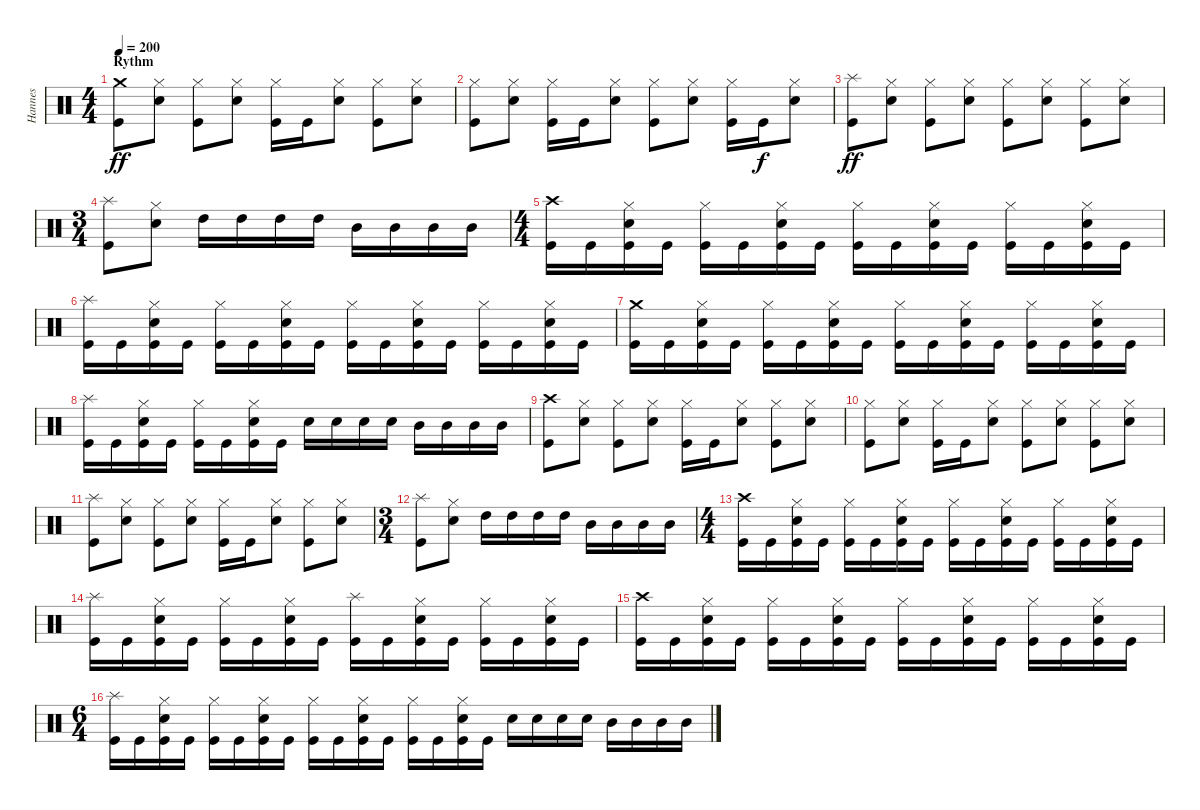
\track ("Hannes" "Hannes") {instrument percussion}
\staff {score}
\articulation defaults
\ts (4 4)
\section ("" "Rythm")
\tempo 200
\clef neutral
\ks c
("Crash medium (hit)" "Kick (hit)").8{dy ff} ("Hi-Hat (closed)" "Electric Snare (hit)").8 ("Hi-Hat (closed)" "Kick (hit)").8 ("Hi-Hat (closed)" "Electric Snare (hit)").8 ("Hi-Hat (closed)" "Kick (hit)").16 "Kick (hit)".16 ("Hi-Hat (closed)" "Electric Snare (hit)").8 ("Hi-Hat (closed)" "Kick (hit)").8 ("Hi-Hat (closed)" "Electric Snare (hit)").8 |
("Hi-Hat (closed)" "Kick (hit)").8 ("Hi-Hat (closed)" "Electric Snare (hit)").8 ("Hi-Hat (closed)" "Kick (hit)").16 "Kick (hit)".16 ("Hi-Hat (closed)" "Electric Snare (hit)").8 ("Hi-Hat (closed)" "Kick (hit)").8 ("Hi-Hat (closed)" "Electric Snare (hit)").8 ("Hi-Hat (closed)" "Kick (hit)").16 "Kick (hit)".16{dy f} ("Hi-Hat (closed)" "Electric Snare (hit)").8 |
("Splash (hit)" "Kick (hit)").8{dy ff} ("Hi-Hat (closed)" "Electric Snare (hit)").8 ("Hi-Hat (closed)" "Kick (hit)").8 ("Hi-Hat (closed)" "Electric Snare (hit)").8 ("Hi-Hat (closed)" "Kick (hit)").8 ("Hi-Hat (closed)" "Electric Snare (hit)").8 ("Hi-Hat (closed)" "Kick (hit)").8 ("Hi-Hat (closed)" "Electric Snare (hit)").8 |
\ts (3 4)
("Splash (hit)" "Kick (hit)").8 ("Hi-Hat (closed)" "Electric Snare (hit)").8 "High Tom (hit)".16 "High Tom (hit)".16 "High Tom (hit)".16 "High Tom (hit)".16 "Mid Tom (hit)".16 "Mid Tom (hit)".16 "Mid Tom (hit)".16 "Mid Tom (hit)".16 |
\ts (4 4)
("Crash high (hit)" "Kick (hit)").16 "Kick (hit)".16 ("Hi-Hat (closed)" "Electric Snare (hit)" "Kick (hit)").16 "Kick (hit)".16 ("Hi-Hat (closed)" "Kick (hit)").16 "Kick (hit)".16 ("Hi-Hat (closed)" "Electric Snare (hit)" "Kick (hit)").16 "Kick (hit)".16 ("Hi-Hat (closed)" "Kick (hit)").16 "Kick (hit)".16 ("Hi-Hat (closed)" "Electric Snare (hit)" "Kick (hit)").16 "Kick (hit)".16 ("Hi-Hat (closed)" "Kick (hit)").16 "Kick (hit)".16 ("Hi-Hat (closed)" "Electric Snare (hit)" "Kick (hit)").16 "Kick (hit)".16 |
("Splash (hit)" "Kick (hit)").16 "Kick (hit)".16 ("Hi-Hat (closed)" "Electric Snare (hit)" "Kick (hit)").16 "Kick (hit)".16 ("Hi-Hat (closed)" "Kick (hit)").16 "Kick (hit)".16 ("Hi-Hat (closed)" "Electric Snare (hit)" "Kick (hit)").16 "Kick (hit)".16 ("Hi-Hat (closed)" "Kick (hit)").16 "Kick (hit)".16 ("Hi-Hat (closed)" "Electric Snare (hit)" "Kick (hit)").16 "Kick (hit)".16 ("Hi-Hat (closed)" "Kick (hit)").16 "Kick (hit)".16 ("Hi-Hat (closed)" "Electric Snare (hit)" "Kick (hit)").16 "Kick (hit)".16 |
("Crash medium (hit)" "Kick (hit)").16 "Kick (hit)".16 ("Hi-Hat (closed)" "Electric Snare (hit)" "Kick (hit)").16 "Kick (hit)".16 ("Hi-Hat (closed)" "Kick (hit)").16 "Kick (hit)".16 ("Hi-Hat (closed)" "Electric Snare (hit)" "Kick (hit)").16 "Kick (hit)".16 ("Hi-Hat (closed)" "Kick (hit)").16 "Kick (hit)".16 ("Hi-Hat (closed)" "Electric Snare (hit)" "Kick (hit)").16 "Kick (hit)".16 ("Hi-Hat (closed)" "Kick (hit)").16 "Kick (hit)".16 ("Hi-Hat (closed)" "Electric Snare (hit)" "Kick (hit)").16 "Kick (hit)".16 |
("Splash (hit)" "Kick (hit)").16 "Kick (hit)".16 ("Hi-Hat (closed)" "Electric Snare (hit)" "Kick (hit)").16 "Kick (hit)".16 ("Hi-Hat (closed)" "Kick (hit)").16 "Kick (hit)".16 ("Hi-Hat (closed)" "Electric Snare (hit)" "Kick (hit)").16 "Kick (hit)".16 "Electric Snare (hit)".16 "Electric Snare (hit)".16 "Electric Snare (hit)".16 "Electric Snare (hit)".16 "Mid Tom (hit)".16 "Mid Tom (hit)".16 "Mid Tom (hit)".16 "Mid Tom (hit)".16 |
("Crash high (hit)" "Kick (hit)").8 ("Hi-Hat (closed)" "Electric Snare (hit)").8 ("Hi-Hat (closed)" "Kick (hit)").8 ("Hi-Hat (closed)" "Electric Snare (hit)").8 ("Hi-Hat (closed)" "Kick (hit)").16 "Kick (hit)".16 ("Hi-Hat (closed)" "Electric Snare (hit)").8 ("Hi-Hat (closed)" "Kick (hit)").8 ("Hi-Hat (closed)" "Electric Snare (hit)").8 |
("Hi-Hat (closed)" "Kick (hit)").8 ("Hi-Hat (closed)" "Electric Snare (hit)").8 ("Hi-Hat (closed)" "Kick (hit)").16 "Kick (hit)".16 ("Hi-Hat (closed)" "Electric Snare (hit)").8 ("Hi-Hat (closed)" "Kick (hit)").8 ("Hi-Hat (closed)" "Electric Snare (hit)").8 ("Hi-Hat (closed)" "Kick (hit)").8 ("Hi-Hat (closed)" "Electric Snare (hit)").8 |
("Splash (hit)" "Kick (hit)").8 ("Hi-Hat (closed)" "Electric Snare (hit)").8 ("Hi-Hat (closed)" "Kick (hit)").8 ("Hi-Hat (closed)" "Electric Snare (hit)").8 ("Hi-Hat (closed)" "Kick (hit)").16 "Kick (hit)".16 ("Hi-Hat (closed)" "Electric Snare (hit)").8 ("Hi-Hat (closed)" "Kick (hit)").8 ("Hi-Hat (closed)" "Electric Snare (hit)").8 |
\ts (3 4)
("Splash (hit)" "Kick (hit)").8 ("Hi-Hat (closed)" "Electric Snare (hit)").8 "High Tom (hit)".16 "High Tom (hit)".16 "High Tom (hit)".16 "High Tom (hit)".16 "Mid Tom (hit)".16 "Mid Tom (hit)".16 "Mid Tom (hit)".16 "Mid Tom (hit)".16 |
\ts (4 4)
("Crash high (hit)" "Kick (hit)").16 "Kick (hit)".16 ("Hi-Hat (closed)" "Electric Snare (hit)" "Kick (hit)").16 "Kick (hit)".16 ("Hi-Hat (closed)" "Kick (hit)").16 "Kick (hit)".16 ("Hi-Hat (closed)" "Electric Snare (hit)" "Kick (hit)").16 "Kick (hit)".16 ("Hi-Hat (closed)" "Kick (hit)").16 "Kick (hit)".16 ("Hi-Hat (closed)" "Electric Snare (hit)" "Kick (hit)").16 "Kick (hit)".16 ("Hi-Hat (closed)" "Kick (hit)").16 "Kick (hit)".16 ("Hi-Hat (closed)" "Electric Snare (hit)" "Kick (hit)").16 "Kick (hit)".16 |
("Splash (hit)" "Kick (hit)").16 "Kick (hit)".16 ("Hi-Hat (closed)" "Electric Snare (hit)" "Kick (hit)").16 "Kick (hit)".16 ("Hi-Hat (closed)" "Kick (hit)").16 "Kick (hit)".16 ("Hi-Hat (closed)" "Electric Snare (hit)" "Kick (hit)").16 "Kick (hit)".16 ("Splash (hit)" "Kick (hit)").16 "Kick (hit)".16 ("Hi-Hat (closed)" "Electric Snare (hit)" "Kick (hit)").16 "Kick (hit)".16 ("Hi-Hat (closed)" "Kick (hit)").16 "Kick (hit)".16 ("Hi-Hat (closed)" "Electric Snare (hit)" "Kick (hit)").16 "Kick (hit)".16 |
("Crash high (hit)" "Kick (hit)").16 "Kick (hit)".16 ("Hi-Hat (closed)" "Electric Snare (hit)" "Kick (hit)").16 "Kick (hit)".16 ("Hi-Hat (closed)" "Kick (hit)").16 "Kick (hit)".16 ("Hi-Hat (closed)" "Electric Snare (hit)" "Kick (hit)").16 "Kick (hit)".16 ("Hi-Hat (closed)" "Kick (hit)").16 "Kick (hit)".16 ("Hi-Hat (closed)" "Electric Snare (hit)" "Kick (hit)").16 "Kick (hit)".16 ("Hi-Hat (closed)" "Kick (hit)").16 "Kick (hit)".16 ("Hi-Hat (closed)" "Electric Snare (hit)" "Kick (hit)").16 "Kick (hit)".16 |
\ts (6 4)
("Splash (hit)" "Kick (hit)").16 "Kick (hit)".16 ("Hi-Hat (closed)" "Electric Snare (hit)" "Kick (hit)").16 "Kick (hit)".16 ("Hi-Hat (closed)" "Kick (hit)").16 "Kick (hit)".16 ("Hi-Hat (closed)" "Electric Snare (hit)" "Kick (hit)").16 "Kick (hit)".16 ("Hi-Hat (closed)" "Kick (hit)").16 "Kick (hit)".16 ("Hi-Hat (closed)" "Electric Snare (hit)" "Kick (hit)").16 "Kick (hit)".16 ("Hi-Hat (closed)" "Kick (hit)").16 "Kick (hit)".16 ("Hi-Hat (closed)" "Electric Snare (hit)" "Kick (hit)").16 "Kick (hit)".16 "Electric Snare (hit)".16 "Electric Snare (hit)".16 "Electric Snare (hit)".16 "Electric Snare (hit)".16 "Mid Tom (hit)".16 "Mid Tom (hit)".16 "Mid Tom (hit)".16 "Mid Tom (hit)".16
